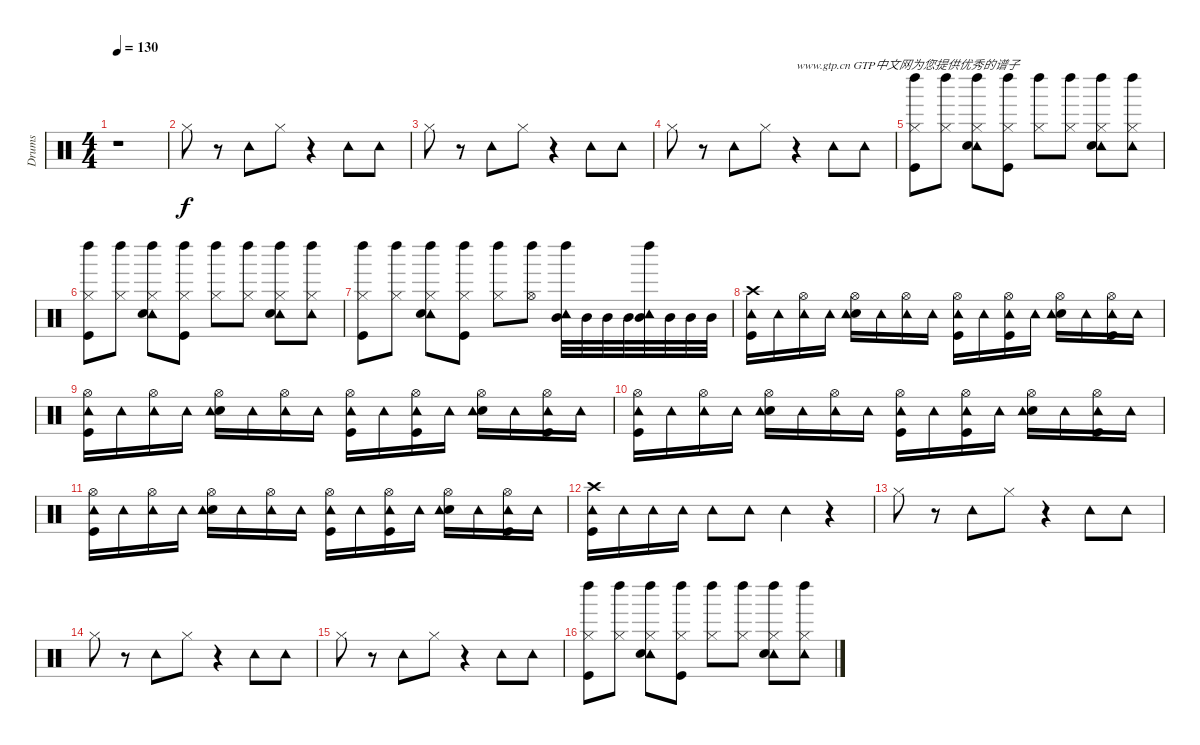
\track ("Drums" "Drums") {instrument percussion}
\staff {score}
\articulation defaults
\ts (4 4)
\tempo 130
\clef neutral
\ks c
r.1{dy f} |
"Hi-Hat (closed)".8 r.8 "Tambourine (hit)".8 "Hi-Hat (closed)".8 r.4 "Tambourine (hit)".8 "Tambourine (hit)".8 |
"Hi-Hat (closed)".8 r.8 "Tambourine (hit)".8 "Hi-Hat (closed)".8 r.4 "Tambourine (hit)".8 "Tambourine (hit)".8 |
"Hi-Hat (closed)".8 r.8 "Tambourine (hit)".8 "Hi-Hat (closed)".8 r.4{txt "www.gtp.cn GTP中文网为您提供优秀的谱子"} "Tambourine (hit)".8 "Tambourine (hit)".8 |
("Hi-Hat (closed)" "Kick (hit)" "Left Maraca (hit)").8 ("Hi-Hat (closed)" "Left Maraca (hit)").8 ("Tambourine (hit)" "Hi-Hat (closed)" "Snare (hit) 2" "Left Maraca (hit)").8 ("Hi-Hat (closed)" "Kick (hit)" "Left Maraca (hit)").8 ("Hi-Hat (closed)" "Left Maraca (hit)").8 ("Hi-Hat (closed)" "Left Maraca (hit)").8 ("Tambourine (hit)" "Hi-Hat (closed)" "Snare (hit) 2" "Left Maraca (hit)").8 ("Tambourine (hit)" "Hi-Hat (closed)" "Left Maraca (hit)").8 |
("Left Maraca (hit)" "Kick (hit)" "Hi-Hat (closed)").8 ("Hi-Hat (closed)" "Left Maraca (hit)").8 ("Tambourine (hit)" "Hi-Hat (closed)" "Snare (hit) 2" "Left Maraca (hit)").8 ("Hi-Hat (closed)" "Kick (hit)" "Left Maraca (hit)").8 ("Hi-Hat (closed)" "Left Maraca (hit)").8 ("Hi-Hat (closed)" "Left Maraca (hit)").8 ("Tambourine (hit)" "Hi-Hat (closed)" "Snare (hit) 2" "Left Maraca (hit)").8 ("Tambourine (hit)" "Hi-Hat (closed)" "Left Maraca (hit)").8 |
("Left Maraca (hit)" "Kick (hit)" "Hi-Hat (closed)").8 ("Hi-Hat (closed)" "Left Maraca (hit)").8 ("Tambourine (hit)" "Hi-Hat (closed)" "Snare (hit) 2" "Left Maraca (hit)").8 ("Hi-Hat (closed)" "Kick (hit)" "Left Maraca (hit)").8 ("Left Maraca (hit)" "Hi-Hat (closed)").8 ("Left Maraca (hit)" "Hi-Hat (open)").8 ("Tambourine (hit)" "Left Maraca (hit)" "Mid Tom (hit)").32 "Mid Tom (hit)".32 "Mid Tom (hit)".32 "Mid Tom (hit)".32 ("Tambourine (hit)" "Left Maraca (hit)" "Mid Tom (hit)").32 "Mid Tom (hit)".32 "Mid Tom (hit)".32 "Mid Tom (hit)".32 |
("Crash high (hit)" "Kick (hit)" "Tambourine (hit)").16 "Tambourine (hit)".16 ("Hi-Hat (open)" "Tambourine (hit)").16 "Tambourine (hit)".16 ("Hi-Hat (open)" "Snare (hit) 2" "Tambourine (hit)").16 "Tambourine (hit)".16 ("Hi-Hat (open)" "Tambourine (hit)").16 "Tambourine (hit)".16 ("Hi-Hat (open)" "Kick (hit)" "Tambourine (hit)").16 "Tambourine (hit)".16 ("Hi-Hat (open)" "Kick (hit)" "Tambourine (hit)").16 "Tambourine (hit)".16 ("Hi-Hat (open)" "Snare (hit) 2" "Tambourine (hit)").16 "Tambourine (hit)".16 ("Hi-Hat (open)" "Kick (hit)" "Tambourine (hit)").16 "Tambourine (hit)".16 |
("Tambourine (hit)" "Kick (hit)" "Hi-Hat (open)").16 "Tambourine (hit)".16 ("Hi-Hat (open)" "Tambourine (hit)").16 "Tambourine (hit)".16 ("Hi-Hat (open)" "Snare (hit) 2" "Tambourine (hit)").16 "Tambourine (hit)".16 ("Hi-Hat (open)" "Tambourine (hit)").16 "Tambourine (hit)".16 ("Hi-Hat (open)" "Kick (hit)" "Tambourine (hit)").16 "Tambourine (hit)".16 ("Hi-Hat (open)" "Kick (hit)" "Tambourine (hit)").16 "Tambourine (hit)".16 ("Hi-Hat (open)" "Snare (hit) 2" "Tambourine (hit)").16 "Tambourine (hit)".16 ("Hi-Hat (open)" "Kick (hit)" "Tambourine (hit)").16 "Tambourine (hit)".16 |
("Hi-Hat (open)" "Kick (hit)" "Tambourine (hit)").16 "Tambourine (hit)".16 ("Hi-Hat (open)" "Tambourine (hit)").16 "Tambourine (hit)".16 ("Hi-Hat (open)" "Snare (hit) 2" "Tambourine (hit)").16 "Tambourine (hit)".16 ("Hi-Hat (open)" "Tambourine (hit)").16 "Tambourine (hit)".16 ("Hi-Hat (open)" "Kick (hit)" "Tambourine (hit)").16 "Tambourine (hit)".16 ("Hi-Hat (open)" "Kick (hit)" "Tambourine (hit)").16 "Tambourine (hit)".16 ("Hi-Hat (open)" "Snare (hit) 2" "Tambourine (hit)").16 "Tambourine (hit)".16 ("Hi-Hat (open)" "Kick (hit)" "Tambourine (hit)").16 "Tambourine (hit)".16 |
("Hi-Hat (open)" "Kick (hit)" "Tambourine (hit)").16 "Tambourine (hit)".16 ("Hi-Hat (open)" "Tambourine (hit)").16 "Tambourine (hit)".16 ("Hi-Hat (open)" "Snare (hit) 2" "Tambourine (hit)").16 "Tambourine (hit)".16 ("Hi-Hat (open)" "Tambourine (hit)").16 "Tambourine (hit)".16 ("Hi-Hat (open)" "Kick (hit)" "Tambourine (hit)").16 "Tambourine (hit)".16 ("Hi-Hat (open)" "Kick (hit)" "Tambourine (hit)").16 "Tambourine (hit)".16 ("Hi-Hat (open)" "Snare (hit) 2" "Tambourine (hit)").16 "Tambourine (hit)".16 ("Hi-Hat (open)" "Kick (hit)" "Tambourine (hit)").16 "Tambourine (hit)".16 |
("Tambourine (hit)" "Crash high (hit)" "Kick (hit)").16 "Tambourine (hit)".16 "Tambourine (hit)".16 "Tambourine (hit)".16 "Tambourine (hit)".8 "Tambourine (hit)".8 "Tambourine (hit)".4 r.4 |
"Hi-Hat (closed)".8 r.8 "Tambourine (hit)".8 "Hi-Hat (closed)".8 r.4 "Tambourine (hit)".8 "Tambourine (hit)".8 |
"Hi-Hat (closed)".8 r.8 "Tambourine (hit)".8 "Hi-Hat (closed)".8 r.4 "Tambourine (hit)".8 "Tambourine (hit)".8 |
"Hi-Hat (closed)".8 r.8 "Tambourine (hit)".8 "Hi-Hat (closed)".8 r.4 "Tambourine (hit)".8 "Tambourine (hit)".8 |
("Hi-Hat (closed)" "Kick (hit)" "Left Maraca (hit)").8 ("Hi-Hat (closed)" "Left Maraca (hit)").8 ("Tambourine (hit)" "Hi-Hat (closed)" "Snare (hit) 2" "Left Maraca (hit)").8 ("Hi-Hat (closed)" "Kick (hit)" "Left Maraca (hit)").8 ("Hi-Hat (closed)" "Left Maraca (hit)").8 ("Hi-Hat (closed)" "Left Maraca (hit)").8 ("Tambourine (hit)" "Hi-Hat (closed)" "Snare (hit) 2" "Left Maraca (hit)").8 ("Tambourine (hit)" "Hi-Hat (closed)" "Left Maraca (hit)").8
